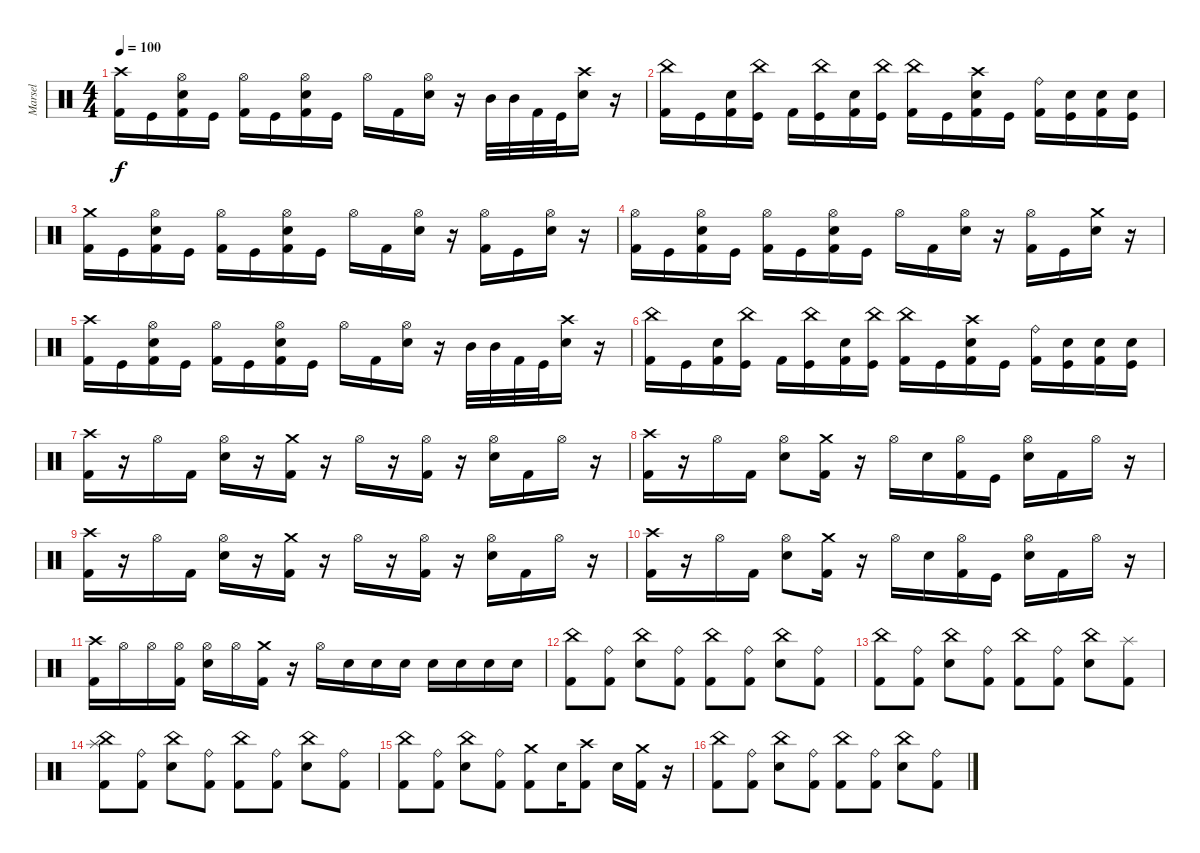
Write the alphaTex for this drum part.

\track ("Marsel" "Marsel") {instrument percussion}
\staff {score}
\articulation defaults
\ts (4 4)
\tempo 100
\clef neutral
\ks c
("Crash high (hit)" "Kick (hit) 2").16{dy f} "Kick (hit)".16 ("Hi-Hat (open)" "Snare (hit) 2" "Kick (hit) 2").16 "Kick (hit)".16 ("Hi-Hat (open)" "Kick (hit) 2").16 "Kick (hit)".16 ("Hi-Hat (open)" "Snare (hit) 2" "Kick (hit) 2").16 "Kick (hit)".16 "Hi-Hat (open)".16 "Kick (hit) 2".16 ("Hi-Hat (open)" "Snare (hit) 2").16 r.16 "Mid Tom (hit)".32 "Mid Tom (hit)".32 "Kick (hit) 2".32 "Kick (hit)".32 ("Crash high (hit)" "Snare (hit) 2").16 r.16 |
("China (hit)" "Kick (hit) 2").16 "Kick (hit)".16 ("Snare (hit) 2" "Kick (hit) 2").16 ("China (hit)" "Kick (hit)").16 "Kick (hit) 2".16 ("China (hit)" "Kick (hit)").16 ("Snare (hit) 2" "Kick (hit) 2").16 ("China (hit)" "Kick (hit)").16 ("China (hit)" "Kick (hit) 2").16 "Kick (hit)".16 ("Crash high (hit)" "Snare (hit) 2" "Kick (hit) 2").16 "Kick (hit)".16 ("Ride (bell)" "Kick (hit) 2").16 ("Snare (hit) 2" "Kick (hit)").16 ("Snare (hit) 2" "Kick (hit) 2").16 ("Snare (hit) 2" "Kick (hit)").16 |
("Crash medium (hit)" "Kick (hit) 2").16 "Kick (hit)".16 ("Hi-Hat (open)" "Snare (hit) 2" "Kick (hit) 2").16 "Kick (hit)".16 ("Hi-Hat (open)" "Kick (hit) 2").16 "Kick (hit)".16 ("Hi-Hat (open)" "Snare (hit) 2" "Kick (hit) 2").16 "Kick (hit)".16 "Hi-Hat (open)".16 "Kick (hit) 2".16 ("Hi-Hat (open)" "Snare (hit) 2").16 r.16 ("Hi-Hat (open)" "Kick (hit) 2").16 "Kick (hit)".16 ("Hi-Hat (open)" "Snare (hit) 2").16 r.16 |
("Hi-Hat (open)" "Kick (hit) 2").16 "Kick (hit)".16 ("Hi-Hat (open)" "Snare (hit) 2" "Kick (hit) 2").16 "Kick (hit)".16 ("Hi-Hat (open)" "Kick (hit) 2").16 "Kick (hit)".16 ("Hi-Hat (open)" "Snare (hit) 2" "Kick (hit) 2").16 "Kick (hit)".16 "Hi-Hat (open)".16 "Kick (hit) 2".16 ("Hi-Hat (open)" "Snare (hit) 2").16 r.16 ("Hi-Hat (open)" "Kick (hit) 2").16 "Kick (hit)".16 ("Crash medium (hit)" "Snare (hit) 2").16 r.16 |
("Crash high (hit)" "Kick (hit) 2").16 "Kick (hit)".16 ("Hi-Hat (open)" "Snare (hit) 2" "Kick (hit) 2").16 "Kick (hit)".16 ("Hi-Hat (open)" "Kick (hit) 2").16 "Kick (hit)".16 ("Hi-Hat (open)" "Snare (hit) 2" "Kick (hit) 2").16 "Kick (hit)".16 "Hi-Hat (open)".16 "Kick (hit) 2".16 ("Hi-Hat (open)" "Snare (hit) 2").16 r.16 "Mid Tom (hit)".32 "Mid Tom (hit)".32 "Kick (hit) 2".32 "Kick (hit)".32 ("Crash high (hit)" "Snare (hit) 2").16 r.16 |
("China (hit)" "Kick (hit) 2").16 "Kick (hit)".16 ("Snare (hit) 2" "Kick (hit) 2").16 ("China (hit)" "Kick (hit)").16 "Kick (hit) 2".16 ("China (hit)" "Kick (hit)").16 ("Snare (hit) 2" "Kick (hit) 2").16 ("China (hit)" "Kick (hit)").16 ("China (hit)" "Kick (hit) 2").16 "Kick (hit)".16 ("Crash high (hit)" "Snare (hit) 2" "Kick (hit) 2").16 "Kick (hit)".16 ("Ride (bell)" "Kick (hit) 2").16 ("Snare (hit) 2" "Kick (hit)").16 ("Snare (hit) 2" "Kick (hit) 2").16 ("Snare (hit) 2" "Kick (hit)").16 |
("Crash high (hit)" "Kick (hit) 2").16 r.16 "Hi-Hat (open)".16 "Kick (hit) 2".16 ("Hi-Hat (open)" "Snare (hit) 2").16 r.16 ("Crash medium (hit)" "Kick (hit) 2").16 r.16 "Hi-Hat (open)".16 r.16 ("Hi-Hat (open)" "Kick (hit) 2").16 r.16 ("Hi-Hat (open)" "Snare (hit) 2").16 "Kick (hit) 2".16 "Hi-Hat (open)".16 r.16 |
("Crash high (hit)" "Kick (hit) 2").16 r.16 "Hi-Hat (open)".16 "Kick (hit) 2".16 ("Hi-Hat (open)" "Snare (hit) 2").8 ("Crash medium (hit)" "Kick (hit) 2").16 r.16 "Hi-Hat (open)".16 "Snare (hit) 2".16 ("Hi-Hat (open)" "Kick (hit) 2").16 "Kick (hit)".16 ("Hi-Hat (open)" "Snare (hit) 2").16 "Kick (hit) 2".16 "Hi-Hat (open)".16 r.16 |
("Crash high (hit)" "Kick (hit) 2").16 r.16 "Hi-Hat (open)".16 "Kick (hit) 2".16 ("Hi-Hat (open)" "Snare (hit) 2").16 r.16 ("Crash medium (hit)" "Kick (hit) 2").16 r.16 "Hi-Hat (open)".16 r.16 ("Hi-Hat (open)" "Kick (hit) 2").16 r.16 ("Hi-Hat (open)" "Snare (hit) 2").16 "Kick (hit) 2".16 "Hi-Hat (open)".16 r.16 |
("Crash high (hit)" "Kick (hit) 2").16 r.16 "Hi-Hat (open)".16 "Kick (hit) 2".16 ("Hi-Hat (open)" "Snare (hit) 2").8 ("Crash medium (hit)" "Kick (hit) 2").16 r.16 "Hi-Hat (open)".16 "Snare (hit) 2".16 ("Hi-Hat (open)" "Kick (hit) 2").16 "Kick (hit)".16 ("Hi-Hat (open)" "Snare (hit) 2").16 "Kick (hit) 2".16 "Hi-Hat (open)".16 r.16 |
("Crash high (hit)" "Kick (hit) 2").16 "Hi-Hat (open)".16 "Hi-Hat (open)".16 ("Hi-Hat (open)" "Kick (hit) 2").16 ("Hi-Hat (open)" "Snare (hit) 2").16 "Hi-Hat (open)".16 ("Crash medium (hit)" "Kick (hit) 2").16 r.16 "Hi-Hat (open)".16 "Snare (hit) 2".16 "Snare (hit) 2".16 "Snare (hit) 2".16 "Snare (hit) 2".16 "Snare (hit) 2".16 "Snare (hit) 2".16 "Snare (hit) 2".16 |
("China (hit)" "Kick (hit) 2").8 ("Ride (bell)" "Kick (hit) 2").8 ("China (hit)" "Snare (hit) 2").8 ("Ride (bell)" "Kick (hit) 2").8 ("China (hit)" "Kick (hit) 2").8 ("Ride (bell)" "Kick (hit) 2").8 ("China (hit)" "Snare (hit) 2").8 ("Ride (bell)" "Kick (hit) 2").8 |
("China (hit)" "Kick (hit) 2").8 ("Ride (bell)" "Kick (hit) 2").8 ("China (hit)" "Snare (hit) 2").8 ("Ride (bell)" "Kick (hit) 2").8 ("China (hit)" "Kick (hit) 2").8 ("Ride (bell)" "Kick (hit) 2").8 ("China (hit)" "Snare (hit) 2").8 ("Splash (hit)" "Kick (hit) 2").8 |
("Splash (hit)" "China (hit)" "Kick (hit) 2").8 ("Ride (bell)" "Kick (hit) 2").8 ("China (hit)" "Snare (hit) 2").8 ("Ride (bell)" "Kick (hit) 2").8 ("China (hit)" "Kick (hit) 2").8 ("Ride (bell)" "Kick (hit) 2").8 ("China (hit)" "Snare (hit) 2").8 ("Ride (bell)" "Kick (hit) 2").8 |
("China (hit)" "Kick (hit) 2").8 ("Ride (bell)" "Kick (hit) 2").8 ("China (hit)" "Snare (hit) 2").8 ("Ride (bell)" "Kick (hit) 2").8 ("Crash medium (hit)" "Kick (hit) 2").8 "Snare (hit) 2".16 ("Crash high (hit)" "Kick (hit) 2").8 "Snare (hit) 2".16 ("Crash medium (hit)" "Kick (hit) 2").16 r.16 |
("China (hit)" "Kick (hit) 2").8 ("Ride (bell)" "Kick (hit) 2").8 ("China (hit)" "Snare (hit) 2").8 ("Ride (bell)" "Kick (hit) 2").8 ("China (hit)" "Kick (hit) 2").8 ("Ride (bell)" "Kick (hit) 2").8 ("China (hit)" "Snare (hit) 2").8 ("Ride (bell)" "Kick (hit) 2").8
